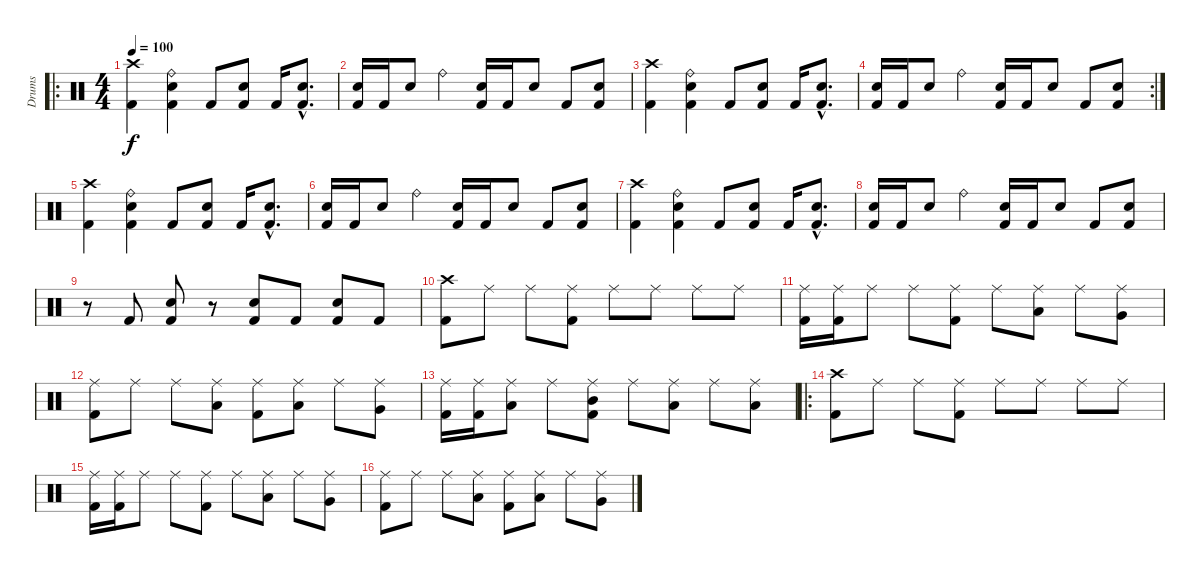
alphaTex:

\track ("Drums" "Drums") {instrument percussion}
\staff {score}
\articulation defaults
\ro
\ts (4 4)
\tempo 100
\clef neutral
\ks c
("Crash high (hit)" "Kick (hit) 2").4{dy f} ("Electric Snare (hit)" "Ride (bell)" "Kick (hit) 2").4 "Kick (hit) 2".8 ("Electric Snare (hit)" "Kick (hit) 2").8 "Kick (hit) 2".16 ("Electric Snare (hit)"{hac} "Kick (hit) 2"{hac}).8{d} |
("Electric Snare (hit)" "Kick (hit) 2").16 "Kick (hit) 2".16 "Electric Snare (hit)".8 "Ride (bell)".4 ("Electric Snare (hit)" "Kick (hit) 2").16 "Kick (hit) 2".16 "Electric Snare (hit)".8 "Kick (hit) 2".8 ("Electric Snare (hit)" "Kick (hit) 2").8 |
("Crash high (hit)" "Kick (hit) 2").4 ("Electric Snare (hit)" "Ride (bell)" "Kick (hit) 2").4 "Kick (hit) 2".8 ("Electric Snare (hit)" "Kick (hit) 2").8 "Kick (hit) 2".16 ("Electric Snare (hit)"{hac} "Kick (hit) 2"{hac}).8{d} |
\rc 2
("Electric Snare (hit)" "Kick (hit) 2").16 "Kick (hit) 2".16 "Electric Snare (hit)".8 "Ride (bell)".4 ("Electric Snare (hit)" "Kick (hit) 2").16 "Kick (hit) 2".16 "Electric Snare (hit)".8 "Kick (hit) 2".8 ("Electric Snare (hit)" "Kick (hit) 2").8 |
("Crash high (hit)" "Kick (hit) 2").4 ("Electric Snare (hit)" "Ride (bell)" "Kick (hit) 2").4 "Kick (hit) 2".8 ("Electric Snare (hit)" "Kick (hit) 2").8 "Kick (hit) 2".16 ("Electric Snare (hit)"{hac} "Kick (hit) 2"{hac}).8{d} |
("Electric Snare (hit)" "Kick (hit) 2").16 "Kick (hit) 2".16 "Electric Snare (hit)".8 "Ride (bell)".4 ("Electric Snare (hit)" "Kick (hit) 2").16 "Kick (hit) 2".16 "Electric Snare (hit)".8 "Kick (hit) 2".8 ("Electric Snare (hit)" "Kick (hit) 2").8 |
("Crash high (hit)" "Kick (hit) 2").4 ("Electric Snare (hit)" "Ride (bell)" "Kick (hit) 2").4 "Kick (hit) 2".8 ("Electric Snare (hit)" "Kick (hit) 2").8 "Kick (hit) 2".16 ("Electric Snare (hit)"{hac} "Kick (hit) 2"{hac}).8{d} |
("Electric Snare (hit)" "Kick (hit) 2").16 "Kick (hit) 2".16 "Electric Snare (hit)".8 "Ride (bell)".4 ("Electric Snare (hit)" "Kick (hit) 2").16 "Kick (hit) 2".16 "Electric Snare (hit)".8 "Kick (hit) 2".8 ("Electric Snare (hit)" "Kick (hit) 2").8 |
r.8 "Kick (hit) 2".8 ("Electric Snare (hit)" "Kick (hit) 2").8 r.8 ("Electric Snare (hit)" "Kick (hit) 2").8 "Kick (hit) 2".8 ("Electric Snare (hit)" "Kick (hit) 2").8 "Kick (hit) 2".8 |
("Crash high (hit)" "Kick (hit) 2").8 "Ride (middle)".8 "Ride (middle)".8 ("Ride (middle)" "Kick (hit) 2").8 "Ride (middle)".8 "Ride (middle)".8 "Ride (middle)".8 "Ride (middle)".8 |
("Ride (middle)" "Kick (hit) 2").16 ("Ride (middle)" "Kick (hit) 2").16 "Ride (middle)".8 "Ride (middle)".8 ("Ride (middle)" "Kick (hit) 2").8 "Ride (middle)".8 ("Low Floor Tom (hit)" "Ride (middle)").8 "Ride (middle)".8 ("Very Low Tom (hit)" "Ride (middle)").8 |
("Ride (middle)" "Kick (hit) 2").8 "Ride (middle)".8 "Ride (middle)".8 ("Low Tom (hit)" "Ride (middle)").8 ("Ride (middle)" "Kick (hit) 2").8 ("Low Floor Tom (hit)" "Ride (middle)").8 "Ride (middle)".8 ("Very Low Tom (hit)" "Ride (middle)").8 |
("Ride (middle)" "Kick (hit) 2").16 ("Ride (middle)" "Kick (hit) 2").16 ("Low Tom (hit)" "Ride (middle)").8 "Ride (middle)".8 ("Mid Tom (hit)" "Ride (middle)" "Kick (hit) 2").8 "Ride (middle)".8 ("Low Tom (hit)" "Ride (middle)").8 "Ride (middle)".8 ("Low Floor Tom (hit)" "Ride (middle)").8 |
\ro
("Crash high (hit)" "Kick (hit) 2").8 "Ride (middle)".8 "Ride (middle)".8 ("Ride (middle)" "Kick (hit) 2").8 "Ride (middle)".8 "Ride (middle)".8 "Ride (middle)".8 "Ride (middle)".8 |
("Ride (middle)" "Kick (hit) 2").16 ("Ride (middle)" "Kick (hit) 2").16 "Ride (middle)".8 "Ride (middle)".8 ("Ride (middle)" "Kick (hit) 2").8 "Ride (middle)".8 ("Low Floor Tom (hit)" "Ride (middle)").8 "Ride (middle)".8 ("Very Low Tom (hit)" "Ride (middle)").8 |
("Ride (middle)" "Kick (hit) 2").8 "Ride (middle)".8 "Ride (middle)".8 ("Low Tom (hit)" "Ride (middle)").8 ("Ride (middle)" "Kick (hit) 2").8 ("Low Floor Tom (hit)" "Ride (middle)").8 "Ride (middle)".8 ("Very Low Tom (hit)" "Ride (middle)").8
